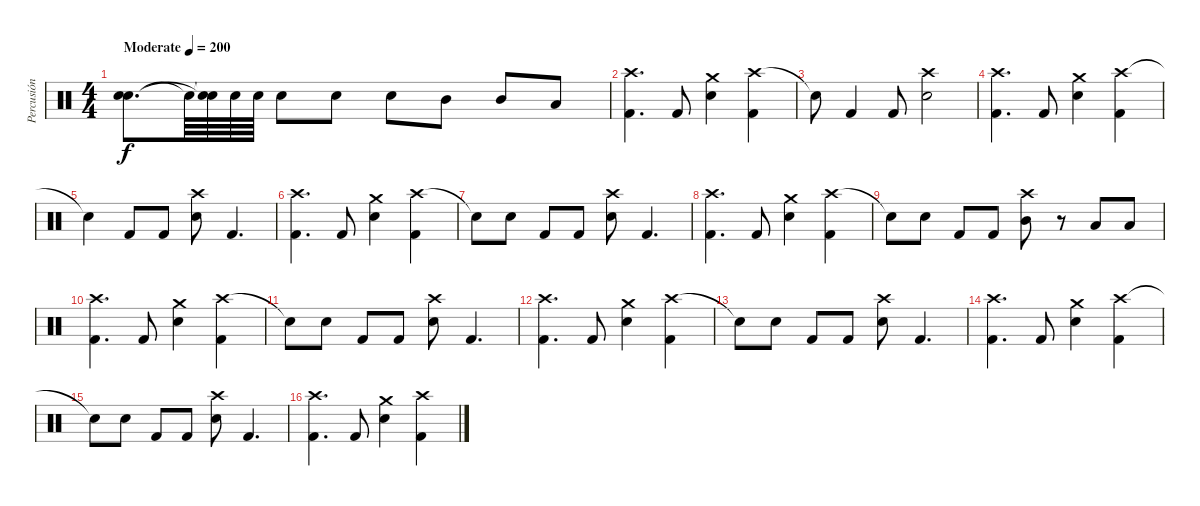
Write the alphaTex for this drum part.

\track ("Percusión" "Percusión") {instrument percussion}
\staff {score}
\articulation defaults
\ts (4 4)
\tempo (200 "Moderate")
\clef neutral
\ks c
("Snare (hit) 2" "Electric Snare (hit)").8{d dy f} "Snare (hit)"{t}.64 ("Snare (hit)"{t} "Snare (hit) 2"{t}).64 "Snare (hit) 2".64 "Snare (hit) 2".64 "Snare (hit) 2".8 "Snare (hit) 2".8 "Snare (hit) 2".8 "Mid Tom (hit)".8 "Mid Tom (hit)".8 "Low Tom (hit)".8 |
("Crash high (hit)" "Kick (hit) 2").4{d} "Kick (hit) 2".8 ("Crash medium (hit)" "Snare (hit) 2").4 ("Crash high (hit)" "Kick (hit) 2").4 |
"Snare (hit)"{t}.8 "Kick (hit) 2".4 "Kick (hit) 2".8 ("Crash high (hit)" "Snare (hit) 2").2 |
("Crash high (hit)" "Kick (hit) 2").4{d} "Kick (hit) 2".8 ("Crash medium (hit)" "Snare (hit) 2").4 ("Crash high (hit)" "Kick (hit) 2").4 |
"Snare (hit)"{t}.4 "Kick (hit) 2".8 "Kick (hit) 2".8 ("Crash high (hit)" "Snare (hit) 2").8 "Kick (hit) 2".4{d} |
("Crash high (hit)" "Kick (hit) 2").4{d} "Kick (hit) 2".8 ("Crash medium (hit)" "Snare (hit) 2").4 ("Crash high (hit)" "Kick (hit) 2").4 |
"Snare (hit)"{t}.8 "Snare (hit) 2".8 "Kick (hit) 2".8 "Kick (hit) 2".8 ("Crash high (hit)" "Snare (hit) 2").8 "Kick (hit) 2".4{d} |
("Crash high (hit)" "Kick (hit) 2").4{d} "Kick (hit) 2".8 ("Crash medium (hit)" "Snare (hit) 2").4 ("Crash high (hit)" "Kick (hit) 2").4 |
"Snare (hit)"{t}.8 "Snare (hit) 2".8 "Kick (hit) 2".8 "Kick (hit) 2".8 ("Crash high (hit)" "Mid Tom (hit)").8 r.8 "Low Tom (hit)".8 "Low Tom (hit)".8 |
("Crash high (hit)" "Kick (hit) 2").4{d} "Kick (hit) 2".8 ("Crash medium (hit)" "Snare (hit) 2").4 ("Crash high (hit)" "Kick (hit) 2").4 |
"Snare (hit)"{t}.8 "Snare (hit) 2".8 "Kick (hit) 2".8 "Kick (hit) 2".8 ("Crash high (hit)" "Snare (hit) 2").8 "Kick (hit) 2".4{d} |
("Crash high (hit)" "Kick (hit) 2").4{d} "Kick (hit) 2".8 ("Crash medium (hit)" "Snare (hit) 2").4 ("Crash high (hit)" "Kick (hit) 2").4 |
"Snare (hit)"{t}.8 "Snare (hit) 2".8 "Kick (hit) 2".8 "Kick (hit) 2".8 ("Crash high (hit)" "Snare (hit) 2").8 "Kick (hit) 2".4{d} |
("Crash high (hit)" "Kick (hit) 2").4{d} "Kick (hit) 2".8 ("Crash medium (hit)" "Snare (hit) 2").4 ("Crash high (hit)" "Kick (hit) 2").4 |
"Snare (hit)"{t}.8 "Snare (hit) 2".8 "Kick (hit) 2".8 "Kick (hit) 2".8 ("Crash high (hit)" "Snare (hit) 2").8 "Kick (hit) 2".4{d} |
("Crash high (hit)" "Kick (hit) 2").4{d} "Kick (hit) 2".8 ("Crash medium (hit)" "Snare (hit) 2").4 ("Crash high (hit)" "Kick (hit) 2").4
